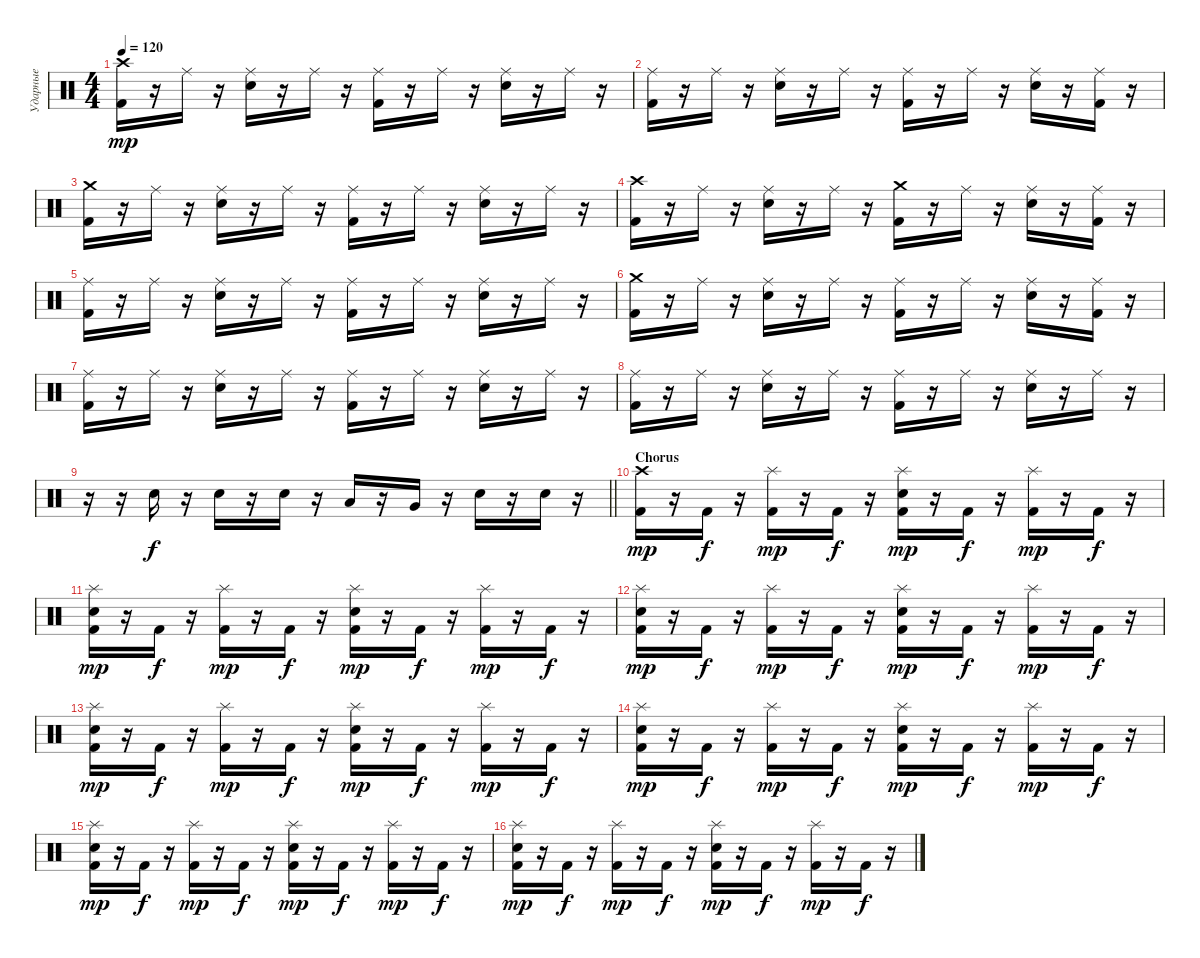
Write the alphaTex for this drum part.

\track ("Ударные" "Ударные") {instrument percussion}
\staff {score}
\articulation defaults
\ts (4 4)
\tempo 120
\clef neutral
\ks c
("Kick (hit) 2" "Crash high (hit)").16{dy mp} r.16 "Ride (middle)".16 r.16 ("Ride (middle)" "Snare (hit) 2").16 r.16 "Ride (middle)".16 r.16 ("Kick (hit) 2" "Ride (middle)").16 r.16 "Ride (middle)".16 r.16 ("Ride (middle)" "Snare (hit) 2").16 r.16 "Ride (middle)".16 r.16 |
("Kick (hit) 2" "Ride (middle)").16 r.16 "Ride (middle)".16 r.16 ("Ride (middle)" "Snare (hit) 2").16 r.16 "Ride (middle)".16 r.16 ("Kick (hit) 2" "Ride (middle)").16 r.16 "Ride (middle)".16 r.16 ("Ride (middle)" "Snare (hit) 2").16 r.16 ("Kick (hit) 2" "Ride (middle)").16 r.16 |
("Kick (hit) 2" "Crash medium (hit)").16 r.16 "Ride (middle)".16 r.16 ("Ride (middle)" "Snare (hit) 2").16 r.16 "Ride (middle)".16 r.16 ("Kick (hit) 2" "Ride (middle)").16 r.16 "Ride (middle)".16 r.16 ("Ride (middle)" "Snare (hit) 2").16 r.16 "Ride (middle)".16 r.16 |
("Kick (hit) 2" "Crash high (hit)").16 r.16 "Ride (middle)".16 r.16 ("Ride (middle)" "Snare (hit) 2").16 r.16 "Ride (middle)".16 r.16 ("Kick (hit) 2" "Crash medium (hit)").16 r.16 "Ride (middle)".16 r.16 ("Ride (middle)" "Snare (hit) 2").16 r.16 ("Kick (hit) 2" "Ride (middle)").16 r.16 |
("Kick (hit) 2" "Ride (middle)").16 r.16 "Ride (middle)".16 r.16 ("Ride (middle)" "Snare (hit) 2").16 r.16 "Ride (middle)".16 r.16 ("Kick (hit) 2" "Ride (middle)").16 r.16 "Ride (middle)".16 r.16 ("Ride (middle)" "Snare (hit) 2").16 r.16 "Ride (middle)".16 r.16 |
("Kick (hit) 2" "Crash medium (hit)").16 r.16 "Ride (middle)".16 r.16 ("Ride (middle)" "Snare (hit) 2").16 r.16 "Ride (middle)".16 r.16 ("Kick (hit) 2" "Ride (middle)").16 r.16 "Ride (middle)".16 r.16 ("Ride (middle)" "Snare (hit) 2").16 r.16 ("Kick (hit) 2" "Ride (middle)").16 r.16 |
("Kick (hit) 2" "Ride (middle)").16 r.16 "Ride (middle)".16 r.16 ("Ride (middle)" "Snare (hit) 2").16 r.16 "Ride (middle)".16 r.16 ("Kick (hit) 2" "Ride (middle)").16 r.16 "Ride (middle)".16 r.16 ("Ride (middle)" "Snare (hit) 2").16 r.16 "Ride (middle)".16 r.16 |
("Kick (hit) 2" "Ride (middle)").16 r.16 "Ride (middle)".16 r.16 ("Ride (middle)" "Snare (hit) 2").16 r.16 "Ride (middle)".16 r.16 ("Kick (hit) 2" "Ride (middle)").16 r.16 "Ride (middle)".16 r.16 ("Ride (middle)" "Snare (hit) 2").16 r.16 "Ride (middle)".16 r.16 |
\barLineRight lightlight
r.16 r.16 "Snare (hit) 2".16{dy f} r.16 "Snare (hit) 2".16 r.16 "Snare (hit) 2".16 r.16 "Low Tom (hit)".16 r.16 "Very Low Tom (hit)".16 r.16 "Snare (hit) 2".16 r.16 "Snare (hit) 2".16 r.16 |
\section ("" "Chorus")
("Kick (hit) 2" "Crash high (hit)").16{dy mp} r.16 "Kick (hit) 2".16{dy f} r.16 ("Kick (hit) 2" "Splash (hit)").16{dy mp} r.16 "Kick (hit) 2".16{dy f} r.16 ("Kick (hit) 2" "Splash (hit)" "Snare (hit) 2").16{dy mp} r.16 "Kick (hit) 2".16{dy f} r.16 ("Kick (hit) 2" "Splash (hit)").16{dy mp} r.16 "Kick (hit) 2".16{dy f} r.16 |
("Kick (hit) 2" "Splash (hit)" "Snare (hit) 2").16{dy mp} r.16 "Kick (hit) 2".16{dy f} r.16 ("Kick (hit) 2" "Splash (hit)").16{dy mp} r.16 "Kick (hit) 2".16{dy f} r.16 ("Kick (hit) 2" "Splash (hit)" "Snare (hit) 2").16{dy mp} r.16 "Kick (hit) 2".16{dy f} r.16 ("Kick (hit) 2" "Splash (hit)").16{dy mp} r.16 "Kick (hit) 2".16{dy f} r.16 |
("Kick (hit) 2" "Splash (hit)" "Snare (hit) 2").16{dy mp} r.16 "Kick (hit) 2".16{dy f} r.16 ("Kick (hit) 2" "Splash (hit)").16{dy mp} r.16 "Kick (hit) 2".16{dy f} r.16 ("Kick (hit) 2" "Splash (hit)" "Snare (hit) 2").16{dy mp} r.16 "Kick (hit) 2".16{dy f} r.16 ("Kick (hit) 2" "Splash (hit)").16{dy mp} r.16 "Kick (hit) 2".16{dy f} r.16 |
("Kick (hit) 2" "Splash (hit)" "Snare (hit) 2").16{dy mp} r.16 "Kick (hit) 2".16{dy f} r.16 ("Kick (hit) 2" "Splash (hit)").16{dy mp} r.16 "Kick (hit) 2".16{dy f} r.16 ("Kick (hit) 2" "Splash (hit)" "Snare (hit) 2").16{dy mp} r.16 "Kick (hit) 2".16{dy f} r.16 ("Kick (hit) 2" "Splash (hit)").16{dy mp} r.16 "Kick (hit) 2".16{dy f} r.16 |
("Kick (hit) 2" "Splash (hit)" "Snare (hit) 2").16{dy mp} r.16 "Kick (hit) 2".16{dy f} r.16 ("Kick (hit) 2" "Splash (hit)").16{dy mp} r.16 "Kick (hit) 2".16{dy f} r.16 ("Kick (hit) 2" "Splash (hit)" "Snare (hit) 2").16{dy mp} r.16 "Kick (hit) 2".16{dy f} r.16 ("Kick (hit) 2" "Splash (hit)").16{dy mp} r.16 "Kick (hit) 2".16{dy f} r.16 |
("Kick (hit) 2" "Splash (hit)" "Snare (hit) 2").16{dy mp} r.16 "Kick (hit) 2".16{dy f} r.16 ("Kick (hit) 2" "Splash (hit)").16{dy mp} r.16 "Kick (hit) 2".16{dy f} r.16 ("Kick (hit) 2" "Splash (hit)" "Snare (hit) 2").16{dy mp} r.16 "Kick (hit) 2".16{dy f} r.16 ("Kick (hit) 2" "Splash (hit)").16{dy mp} r.16 "Kick (hit) 2".16{dy f} r.16 |
("Kick (hit) 2" "Splash (hit)" "Snare (hit) 2").16{dy mp} r.16 "Kick (hit) 2".16{dy f} r.16 ("Kick (hit) 2" "Splash (hit)").16{dy mp} r.16 "Kick (hit) 2".16{dy f} r.16 ("Kick (hit) 2" "Splash (hit)" "Snare (hit) 2").16{dy mp} r.16 "Kick (hit) 2".16{dy f} r.16 ("Kick (hit) 2" "Splash (hit)").16{dy mp} r.16 "Kick (hit) 2".16{dy f} r.16
